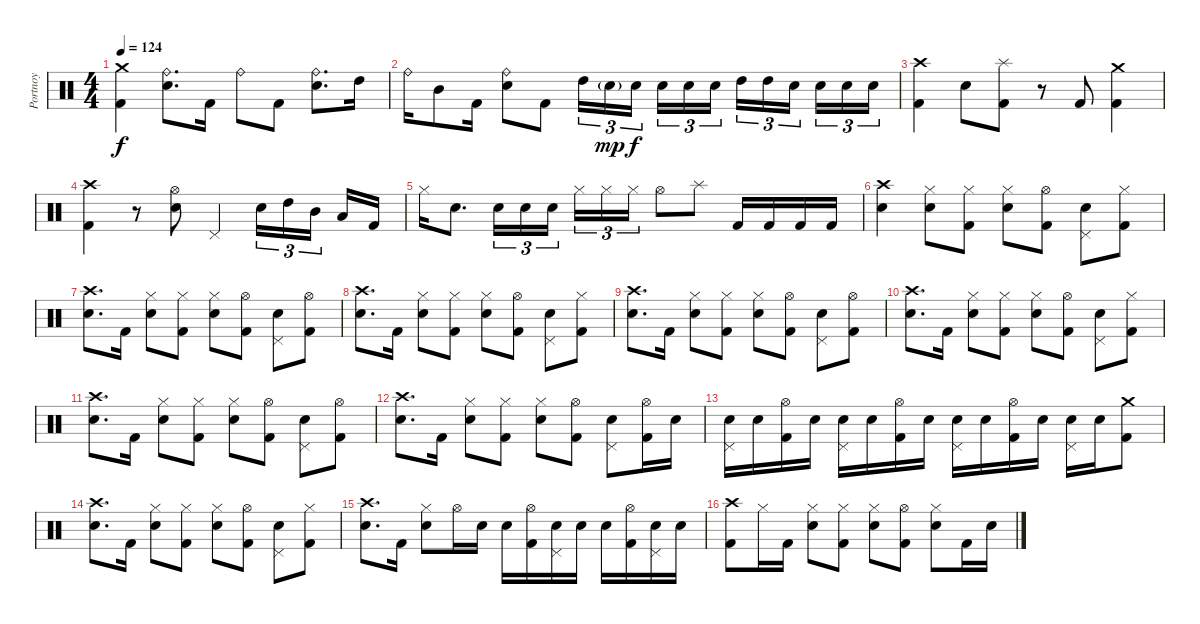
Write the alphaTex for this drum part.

\track ("Portnoy" "Portnoy") {instrument percussion}
\staff {score}
\articulation defaults
\ts (4 4)
\tempo 124
\clef neutral
\ks c
("Crash medium (hit)" "Kick (hit) 2").4{dy f} ("Ride (bell)" "Electric Snare (hit)").8{d} "Kick (hit) 2".16 "Ride (bell)".8 "Kick (hit) 2".8 ("Ride (bell)" "Electric Snare (hit)").8{d} "High Tom (hit)".16 |
"Ride (bell)".16 "Mid Tom (hit)".8 "Kick (hit) 2".16 ("Ride (bell)" "Electric Snare (hit)").8 "Kick (hit) 2".8 "High Tom (hit)".16{tu (3 2)} "Electric Snare (hit)"{g}.16{tu (3 2) dy mp} "Electric Snare (hit)".16{tu (3 2) dy f beam splitsecondary} "Electric Snare (hit)".16{tu (3 2)} "Electric Snare (hit)".16{tu (3 2)} "Electric Snare (hit)".16{tu (3 2)} "High Tom (hit)".16{tu (3 2)} "High Tom (hit)".16{tu (3 2)} "Electric Snare (hit)".16{tu (3 2) beam splitsecondary} "Electric Snare (hit)".16{tu (3 2)} "Electric Snare (hit)".16{tu (3 2)} "Electric Snare (hit)".16{tu (3 2)} |
("Crash high (hit)" "Kick (hit) 2").4 "Electric Snare (hit)".8 ("Splash (hit)" "Kick (hit) 2").8 r.8 "Kick (hit) 2".8 ("Crash medium (hit)" "Kick (hit) 2").4 |
("Crash high (hit)" "Kick (hit) 2").4 r.8 ("Hi-Hat (open)" "Electric Snare (hit)").8 "Pedal Hi-Hat (hit)".4 "Electric Snare (hit)".16{tu (3 2)} "High Tom (hit)".16{tu (3 2)} "Mid Tom (hit)".16{tu (3 2) beam splitsecondary} "Low Tom (hit)".16 "Kick (hit) 2".16 |
"Hi-Hat (closed)".16 "Electric Snare (hit)".8{d} "Electric Snare (hit)".16{tu (3 2)} "Electric Snare (hit)".16{tu (3 2)} "Electric Snare (hit)".16{tu (3 2) beam splitsecondary} "Hi-Hat (closed)".16{tu (3 2)} "Hi-Hat (closed)".16{tu (3 2)} "Hi-Hat (closed)".16{tu (3 2)} "Hi-Hat (open)".8 "Splash (hit)".8 "Kick (hit) 2".16 "Kick (hit) 2".16 "Kick (hit) 2".16 "Kick (hit) 2".16 |
("Crash high (hit)" "Electric Snare (hit)").4 ("Hi-Hat (closed)" "Electric Snare (hit)").8 ("Hi-Hat (closed)" "Kick (hit) 2").8 ("Hi-Hat (closed)" "Electric Snare (hit)").8 ("Hi-Hat (open)" "Kick (hit) 2").8 ("Electric Snare (hit)" "Pedal Hi-Hat (hit)").8 ("Hi-Hat (closed)" "Kick (hit) 2").8 |
("Crash high (hit)" "Electric Snare (hit)").8{d} "Kick (hit) 2".16 ("Hi-Hat (closed)" "Electric Snare (hit)").8 ("Hi-Hat (closed)" "Kick (hit) 2").8 ("Hi-Hat (closed)" "Electric Snare (hit)").8 ("Hi-Hat (open)" "Kick (hit) 2").8 ("Electric Snare (hit)" "Pedal Hi-Hat (hit)").8 ("Hi-Hat (open)" "Kick (hit) 2").8 |
("Crash high (hit)" "Electric Snare (hit)").8{d} "Kick (hit) 2".16 ("Hi-Hat (closed)" "Electric Snare (hit)").8 ("Hi-Hat (closed)" "Kick (hit) 2").8 ("Hi-Hat (closed)" "Electric Snare (hit)").8 ("Hi-Hat (open)" "Kick (hit) 2").8 ("Electric Snare (hit)" "Pedal Hi-Hat (hit)").8 ("Hi-Hat (closed)" "Kick (hit) 2").8 |
("Crash high (hit)" "Electric Snare (hit)").8{d} "Kick (hit) 2".16 ("Hi-Hat (closed)" "Electric Snare (hit)").8 ("Hi-Hat (closed)" "Kick (hit) 2").8 ("Hi-Hat (closed)" "Electric Snare (hit)").8 ("Hi-Hat (open)" "Kick (hit) 2").8 ("Electric Snare (hit)" "Pedal Hi-Hat (hit)").8 ("Hi-Hat (open)" "Kick (hit) 2").8 |
("Crash high (hit)" "Electric Snare (hit)").8{d} "Kick (hit) 2".16 ("Hi-Hat (closed)" "Electric Snare (hit)").8 ("Hi-Hat (closed)" "Kick (hit) 2").8 ("Hi-Hat (closed)" "Electric Snare (hit)").8 ("Hi-Hat (open)" "Kick (hit) 2").8 ("Electric Snare (hit)" "Pedal Hi-Hat (hit)").8 ("Hi-Hat (closed)" "Kick (hit) 2").8 |
("Crash high (hit)" "Electric Snare (hit)").8{d} "Kick (hit) 2".16 ("Hi-Hat (closed)" "Electric Snare (hit)").8 ("Hi-Hat (closed)" "Kick (hit) 2").8 ("Hi-Hat (closed)" "Electric Snare (hit)").8 ("Hi-Hat (open)" "Kick (hit) 2").8 ("Electric Snare (hit)" "Pedal Hi-Hat (hit)").8 ("Hi-Hat (open)" "Kick (hit) 2").8 |
("Crash high (hit)" "Electric Snare (hit)").8{d} "Kick (hit) 2".16 ("Hi-Hat (closed)" "Electric Snare (hit)").8 ("Hi-Hat (closed)" "Kick (hit) 2").8 ("Hi-Hat (closed)" "Electric Snare (hit)").8 ("Hi-Hat (open)" "Kick (hit) 2").8 ("Electric Snare (hit)" "Pedal Hi-Hat (hit)").8 ("Hi-Hat (open)" "Kick (hit) 2").16 "Electric Snare (hit)".16 |
("Electric Snare (hit)" "Pedal Hi-Hat (hit)").16 "Electric Snare (hit)".16 ("Hi-Hat (open)" "Kick (hit) 2").16 "Electric Snare (hit)".16 ("Electric Snare (hit)" "Pedal Hi-Hat (hit)").16 "Electric Snare (hit)".16 ("Hi-Hat (open)" "Kick (hit) 2").16 "Electric Snare (hit)".16 ("Electric Snare (hit)" "Pedal Hi-Hat (hit)").16 "Electric Snare (hit)".16 ("Hi-Hat (open)" "Kick (hit) 2").16 "Electric Snare (hit)".16 ("Electric Snare (hit)" "Pedal Hi-Hat (hit)").16 "Electric Snare (hit)".16 ("Crash medium (hit)" "Kick (hit) 2").8 |
("Crash high (hit)" "Electric Snare (hit)").8{d} "Kick (hit) 2".16 ("Hi-Hat (closed)" "Electric Snare (hit)").8 ("Hi-Hat (closed)" "Kick (hit) 2").8 ("Hi-Hat (closed)" "Electric Snare (hit)").8 ("Hi-Hat (open)" "Kick (hit) 2").8 ("Electric Snare (hit)" "Pedal Hi-Hat (hit)").8 ("Hi-Hat (closed)" "Kick (hit) 2").8 |
("Crash high (hit)" "Electric Snare (hit)").8{d} "Kick (hit) 2".16 ("Hi-Hat (closed)" "Electric Snare (hit)").8 "Hi-Hat (open)".16 "Electric Snare (hit)".16 "Electric Snare (hit)".16 ("Hi-Hat (open)" "Kick (hit) 2").16 ("Electric Snare (hit)" "Pedal Hi-Hat (hit)").16 "Electric Snare (hit)".16 "Electric Snare (hit)".16 ("Hi-Hat (open)" "Kick (hit) 2").16 ("Electric Snare (hit)" "Pedal Hi-Hat (hit)").16 "Electric Snare (hit)".16 |
("Crash high (hit)" "Kick (hit) 2").8 "Hi-Hat (closed)".16 "Kick (hit) 2".16 ("Hi-Hat (closed)" "Electric Snare (hit)").8 ("Hi-Hat (closed)" "Kick (hit) 2").8 ("Hi-Hat (closed)" "Electric Snare (hit)").8 ("Hi-Hat (open)" "Kick (hit) 2").8 ("Hi-Hat (closed)" "Electric Snare (hit)").8 "Kick (hit) 2".16 "Electric Snare (hit)".16
